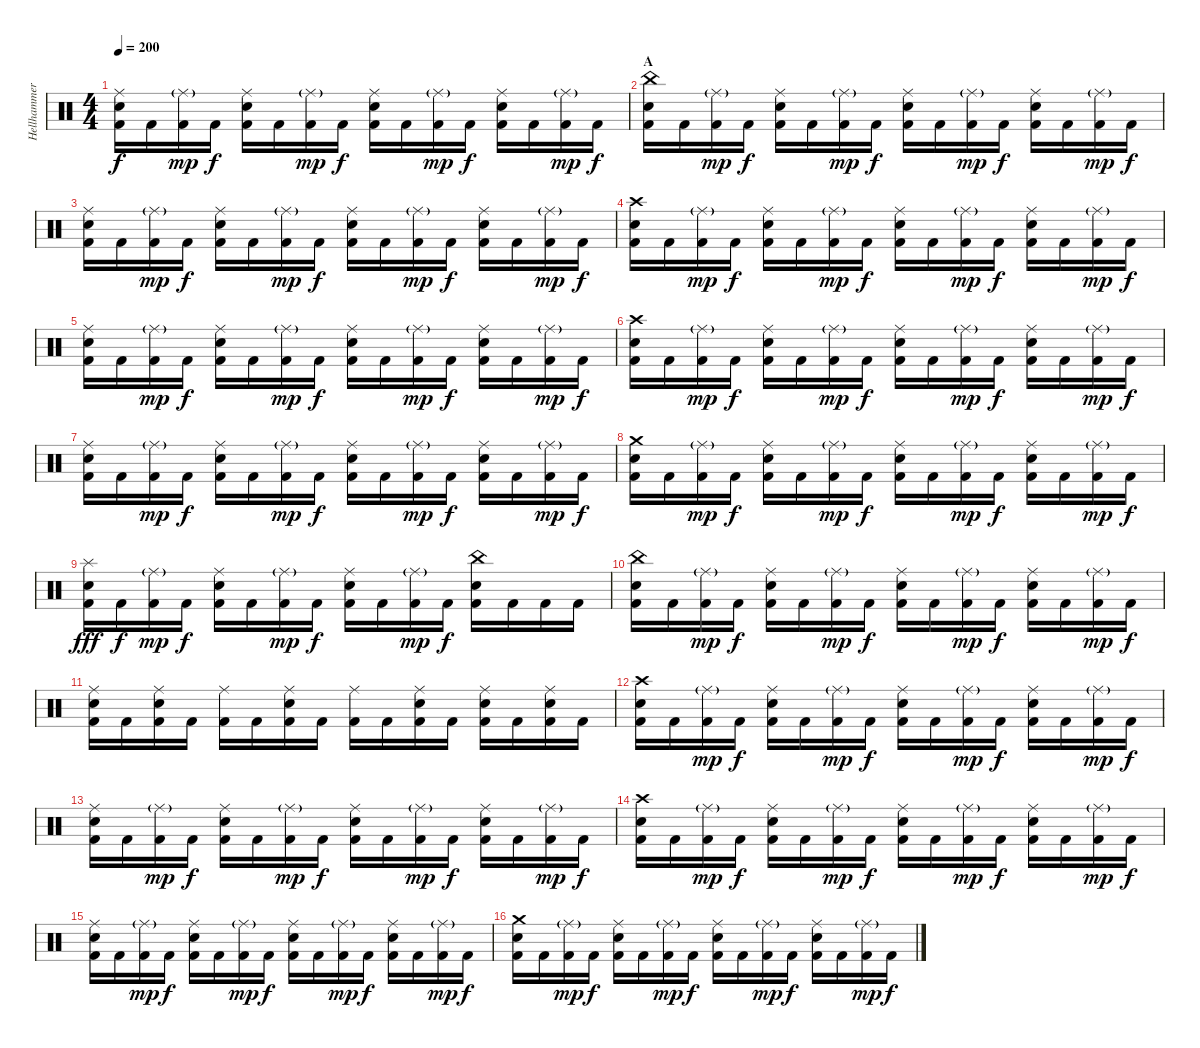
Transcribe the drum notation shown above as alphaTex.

\track ("Hellhammer" "Hellhammer") {instrument percussion}
\staff {score}
\articulation defaults
\ts (4 4)
\tempo 200
\clef neutral
\ks c
("Kick (hit) 2" "Electric Snare (hit)" "Ride (middle)").16{dy f} "Kick (hit) 2".16 ("Kick (hit) 2" "Ride (middle)"{g}).16{dy mp} "Kick (hit) 2".16{dy f} ("Kick (hit) 2" "Electric Snare (hit)" "Ride (middle)").16 "Kick (hit) 2".16 ("Kick (hit) 2" "Ride (middle)"{g}).16{dy mp} "Kick (hit) 2".16{dy f} ("Kick (hit) 2" "Electric Snare (hit)" "Ride (middle)").16 "Kick (hit) 2".16 ("Kick (hit) 2" "Ride (middle)"{g}).16{dy mp} "Kick (hit) 2".16{dy f} ("Kick (hit) 2" "Electric Snare (hit)" "Ride (middle)").16 "Kick (hit) 2".16 ("Kick (hit) 2" "Ride (middle)"{g}).16{dy mp} "Kick (hit) 2".16{dy f} |
\section ("" "A")
("Kick (hit) 2" "Electric Snare (hit)" "China (hit)").16 "Kick (hit) 2".16 ("Kick (hit) 2" "Ride (middle)"{g}).16{dy mp} "Kick (hit) 2".16{dy f} ("Kick (hit) 2" "Electric Snare (hit)" "Ride (middle)").16 "Kick (hit) 2".16 ("Kick (hit) 2" "Ride (middle)"{g}).16{dy mp} "Kick (hit) 2".16{dy f} ("Kick (hit) 2" "Electric Snare (hit)" "Ride (middle)").16 "Kick (hit) 2".16 ("Kick (hit) 2" "Ride (middle)"{g}).16{dy mp} "Kick (hit) 2".16{dy f} ("Kick (hit) 2" "Electric Snare (hit)" "Ride (middle)").16 "Kick (hit) 2".16 ("Kick (hit) 2" "Ride (middle)"{g}).16{dy mp} "Kick (hit) 2".16{dy f} |
("Kick (hit) 2" "Electric Snare (hit)" "Ride (middle)").16 "Kick (hit) 2".16 ("Kick (hit) 2" "Ride (middle)"{g}).16{dy mp} "Kick (hit) 2".16{dy f} ("Kick (hit) 2" "Electric Snare (hit)" "Ride (middle)").16 "Kick (hit) 2".16 ("Kick (hit) 2" "Ride (middle)"{g}).16{dy mp} "Kick (hit) 2".16{dy f} ("Kick (hit) 2" "Electric Snare (hit)" "Ride (middle)").16 "Kick (hit) 2".16 ("Kick (hit) 2" "Ride (middle)"{g}).16{dy mp} "Kick (hit) 2".16{dy f} ("Kick (hit) 2" "Electric Snare (hit)" "Ride (middle)").16 "Kick (hit) 2".16 ("Kick (hit) 2" "Ride (middle)"{g}).16{dy mp} "Kick (hit) 2".16{dy f} |
("Kick (hit) 2" "Electric Snare (hit)" "Crash high (hit)").16 "Kick (hit) 2".16 ("Kick (hit) 2" "Ride (middle)"{g}).16{dy mp} "Kick (hit) 2".16{dy f} ("Kick (hit) 2" "Electric Snare (hit)" "Ride (middle)").16 "Kick (hit) 2".16 ("Kick (hit) 2" "Ride (middle)"{g}).16{dy mp} "Kick (hit) 2".16{dy f} ("Kick (hit) 2" "Electric Snare (hit)" "Ride (middle)").16 "Kick (hit) 2".16 ("Kick (hit) 2" "Ride (middle)"{g}).16{dy mp} "Kick (hit) 2".16{dy f} ("Kick (hit) 2" "Electric Snare (hit)" "Ride (middle)").16 "Kick (hit) 2".16 ("Kick (hit) 2" "Ride (middle)"{g}).16{dy mp} "Kick (hit) 2".16{dy f} |
("Kick (hit) 2" "Electric Snare (hit)" "Ride (middle)").16 "Kick (hit) 2".16 ("Kick (hit) 2" "Ride (middle)"{g}).16{dy mp} "Kick (hit) 2".16{dy f} ("Kick (hit) 2" "Electric Snare (hit)" "Ride (middle)").16 "Kick (hit) 2".16 ("Kick (hit) 2" "Ride (middle)"{g}).16{dy mp} "Kick (hit) 2".16{dy f} ("Kick (hit) 2" "Electric Snare (hit)" "Ride (middle)").16 "Kick (hit) 2".16 ("Kick (hit) 2" "Ride (middle)"{g}).16{dy mp} "Kick (hit) 2".16{dy f} ("Kick (hit) 2" "Electric Snare (hit)" "Ride (middle)").16 "Kick (hit) 2".16 ("Kick (hit) 2" "Ride (middle)"{g}).16{dy mp} "Kick (hit) 2".16{dy f} |
("Kick (hit) 2" "Electric Snare (hit)" "Crash high (hit)").16 "Kick (hit) 2".16 ("Kick (hit) 2" "Ride (middle)"{g}).16{dy mp} "Kick (hit) 2".16{dy f} ("Kick (hit) 2" "Electric Snare (hit)" "Ride (middle)").16 "Kick (hit) 2".16 ("Kick (hit) 2" "Ride (middle)"{g}).16{dy mp} "Kick (hit) 2".16{dy f} ("Kick (hit) 2" "Electric Snare (hit)" "Ride (middle)").16 "Kick (hit) 2".16 ("Kick (hit) 2" "Ride (middle)"{g}).16{dy mp} "Kick (hit) 2".16{dy f} ("Kick (hit) 2" "Electric Snare (hit)" "Ride (middle)").16 "Kick (hit) 2".16 ("Kick (hit) 2" "Ride (middle)"{g}).16{dy mp} "Kick (hit) 2".16{dy f} |
("Kick (hit) 2" "Electric Snare (hit)" "Ride (middle)").16 "Kick (hit) 2".16 ("Kick (hit) 2" "Ride (middle)"{g}).16{dy mp} "Kick (hit) 2".16{dy f} ("Kick (hit) 2" "Electric Snare (hit)" "Ride (middle)").16 "Kick (hit) 2".16 ("Kick (hit) 2" "Ride (middle)"{g}).16{dy mp} "Kick (hit) 2".16{dy f} ("Kick (hit) 2" "Electric Snare (hit)" "Ride (middle)").16 "Kick (hit) 2".16 ("Kick (hit) 2" "Ride (middle)"{g}).16{dy mp} "Kick (hit) 2".16{dy f} ("Kick (hit) 2" "Electric Snare (hit)" "Ride (middle)").16 "Kick (hit) 2".16 ("Kick (hit) 2" "Ride (middle)"{g}).16{dy mp} "Kick (hit) 2".16{dy f} |
("Kick (hit) 2" "Electric Snare (hit)" "Crash medium (hit)").16 "Kick (hit) 2".16 ("Kick (hit) 2" "Ride (middle)"{g}).16{dy mp} "Kick (hit) 2".16{dy f} ("Kick (hit) 2" "Electric Snare (hit)" "Ride (middle)").16 "Kick (hit) 2".16 ("Kick (hit) 2" "Ride (middle)"{g}).16{dy mp} "Kick (hit) 2".16{dy f} ("Kick (hit) 2" "Electric Snare (hit)" "Ride (middle)").16 "Kick (hit) 2".16 ("Kick (hit) 2" "Ride (middle)"{g}).16{dy mp} "Kick (hit) 2".16{dy f} ("Kick (hit) 2" "Electric Snare (hit)" "Ride (middle)").16 "Kick (hit) 2".16 ("Kick (hit) 2" "Ride (middle)"{g}).16{dy mp} "Kick (hit) 2".16{dy f} |
("Kick (hit) 2" "Electric Snare (hit)" "Splash (hit)").16{dy fff} "Kick (hit) 2".16{dy f} ("Kick (hit) 2" "Ride (middle)"{g}).16{dy mp} "Kick (hit) 2".16{dy f} ("Kick (hit) 2" "Electric Snare (hit)" "Ride (middle)").16 "Kick (hit) 2".16 ("Kick (hit) 2" "Ride (middle)"{g}).16{dy mp} "Kick (hit) 2".16{dy f} ("Kick (hit) 2" "Electric Snare (hit)" "Ride (middle)").16 "Kick (hit) 2".16 ("Kick (hit) 2" "Ride (middle)"{g}).16{dy mp} "Kick (hit) 2".16{dy f} ("Kick (hit) 2" "Electric Snare (hit)" "China (hit)").16 "Kick (hit) 2".16 "Kick (hit) 2".16 "Kick (hit) 2".16 |
("Kick (hit) 2" "Electric Snare (hit)" "China (hit)").16 "Kick (hit) 2".16 ("Kick (hit) 2" "Ride (middle)"{g}).16{dy mp} "Kick (hit) 2".16{dy f} ("Kick (hit) 2" "Electric Snare (hit)" "Ride (middle)").16 "Kick (hit) 2".16 ("Kick (hit) 2" "Ride (middle)"{g}).16{dy mp} "Kick (hit) 2".16{dy f} ("Kick (hit) 2" "Electric Snare (hit)" "Ride (middle)").16 "Kick (hit) 2".16 ("Kick (hit) 2" "Ride (middle)"{g}).16{dy mp} "Kick (hit) 2".16{dy f} ("Kick (hit) 2" "Electric Snare (hit)" "Ride (middle)").16 "Kick (hit) 2".16 ("Kick (hit) 2" "Ride (middle)"{g}).16{dy mp} "Kick (hit) 2".16{dy f} |
("Kick (hit) 2" "Electric Snare (hit)" "Ride (middle)").16 "Kick (hit) 2".16 ("Kick (hit) 2" "Electric Snare (hit)" "Ride (middle)").16 "Kick (hit) 2".16 ("Kick (hit) 2" "Ride (middle)").16 "Kick (hit) 2".16 ("Kick (hit) 2" "Electric Snare (hit)" "Ride (middle)").16 "Kick (hit) 2".16 ("Kick (hit) 2" "Ride (middle)").16 "Kick (hit) 2".16 ("Kick (hit) 2" "Electric Snare (hit)" "Ride (middle)").16 "Kick (hit) 2".16 ("Kick (hit) 2" "Electric Snare (hit)" "Ride (middle)").16 "Kick (hit) 2".16 ("Kick (hit) 2" "Electric Snare (hit)" "Ride (middle)").16 "Kick (hit) 2".16 |
("Kick (hit) 2" "Electric Snare (hit)" "Crash high (hit)").16 "Kick (hit) 2".16 ("Kick (hit) 2" "Ride (middle)"{g}).16{dy mp} "Kick (hit) 2".16{dy f} ("Kick (hit) 2" "Electric Snare (hit)" "Ride (middle)").16 "Kick (hit) 2".16 ("Kick (hit) 2" "Ride (middle)"{g}).16{dy mp} "Kick (hit) 2".16{dy f} ("Kick (hit) 2" "Electric Snare (hit)" "Ride (middle)").16 "Kick (hit) 2".16 ("Kick (hit) 2" "Ride (middle)"{g}).16{dy mp} "Kick (hit) 2".16{dy f} ("Kick (hit) 2" "Electric Snare (hit)" "Ride (middle)").16 "Kick (hit) 2".16 ("Kick (hit) 2" "Ride (middle)"{g}).16{dy mp} "Kick (hit) 2".16{dy f} |
("Kick (hit) 2" "Electric Snare (hit)" "Ride (middle)").16 "Kick (hit) 2".16 ("Kick (hit) 2" "Ride (middle)"{g}).16{dy mp} "Kick (hit) 2".16{dy f} ("Kick (hit) 2" "Electric Snare (hit)" "Ride (middle)").16 "Kick (hit) 2".16 ("Kick (hit) 2" "Ride (middle)"{g}).16{dy mp} "Kick (hit) 2".16{dy f} ("Kick (hit) 2" "Electric Snare (hit)" "Ride (middle)").16 "Kick (hit) 2".16 ("Kick (hit) 2" "Ride (middle)"{g}).16{dy mp} "Kick (hit) 2".16{dy f} ("Kick (hit) 2" "Electric Snare (hit)" "Ride (middle)").16 "Kick (hit) 2".16 ("Kick (hit) 2" "Ride (middle)"{g}).16{dy mp} "Kick (hit) 2".16{dy f} |
("Kick (hit) 2" "Electric Snare (hit)" "Crash high (hit)").16 "Kick (hit) 2".16 ("Kick (hit) 2" "Ride (middle)"{g}).16{dy mp} "Kick (hit) 2".16{dy f} ("Kick (hit) 2" "Electric Snare (hit)" "Ride (middle)").16 "Kick (hit) 2".16 ("Kick (hit) 2" "Ride (middle)"{g}).16{dy mp} "Kick (hit) 2".16{dy f} ("Kick (hit) 2" "Electric Snare (hit)" "Ride (middle)").16 "Kick (hit) 2".16 ("Kick (hit) 2" "Ride (middle)"{g}).16{dy mp} "Kick (hit) 2".16{dy f} ("Kick (hit) 2" "Electric Snare (hit)" "Ride (middle)").16 "Kick (hit) 2".16 ("Kick (hit) 2" "Ride (middle)"{g}).16{dy mp} "Kick (hit) 2".16{dy f} |
("Kick (hit) 2" "Electric Snare (hit)" "Ride (middle)").16 "Kick (hit) 2".16 ("Kick (hit) 2" "Ride (middle)"{g}).16{dy mp} "Kick (hit) 2".16{dy f} ("Kick (hit) 2" "Electric Snare (hit)" "Ride (middle)").16 "Kick (hit) 2".16 ("Kick (hit) 2" "Ride (middle)"{g}).16{dy mp} "Kick (hit) 2".16{dy f} ("Kick (hit) 2" "Electric Snare (hit)" "Ride (middle)").16 "Kick (hit) 2".16 ("Kick (hit) 2" "Ride (middle)"{g}).16{dy mp} "Kick (hit) 2".16{dy f} ("Kick (hit) 2" "Electric Snare (hit)" "Ride (middle)").16 "Kick (hit) 2".16 ("Kick (hit) 2" "Ride (middle)"{g}).16{dy mp} "Kick (hit) 2".16{dy f} |
("Kick (hit) 2" "Electric Snare (hit)" "Crash medium (hit)").16 "Kick (hit) 2".16 ("Kick (hit) 2" "Ride (middle)"{g}).16{dy mp} "Kick (hit) 2".16{dy f} ("Kick (hit) 2" "Electric Snare (hit)" "Ride (middle)").16 "Kick (hit) 2".16 ("Kick (hit) 2" "Ride (middle)"{g}).16{dy mp} "Kick (hit) 2".16{dy f} ("Kick (hit) 2" "Electric Snare (hit)" "Ride (middle)").16 "Kick (hit) 2".16 ("Kick (hit) 2" "Ride (middle)"{g}).16{dy mp} "Kick (hit) 2".16{dy f} ("Kick (hit) 2" "Electric Snare (hit)" "Ride (middle)").16 "Kick (hit) 2".16 ("Kick (hit) 2" "Ride (middle)"{g}).16{dy mp} "Kick (hit) 2".16{dy f}
